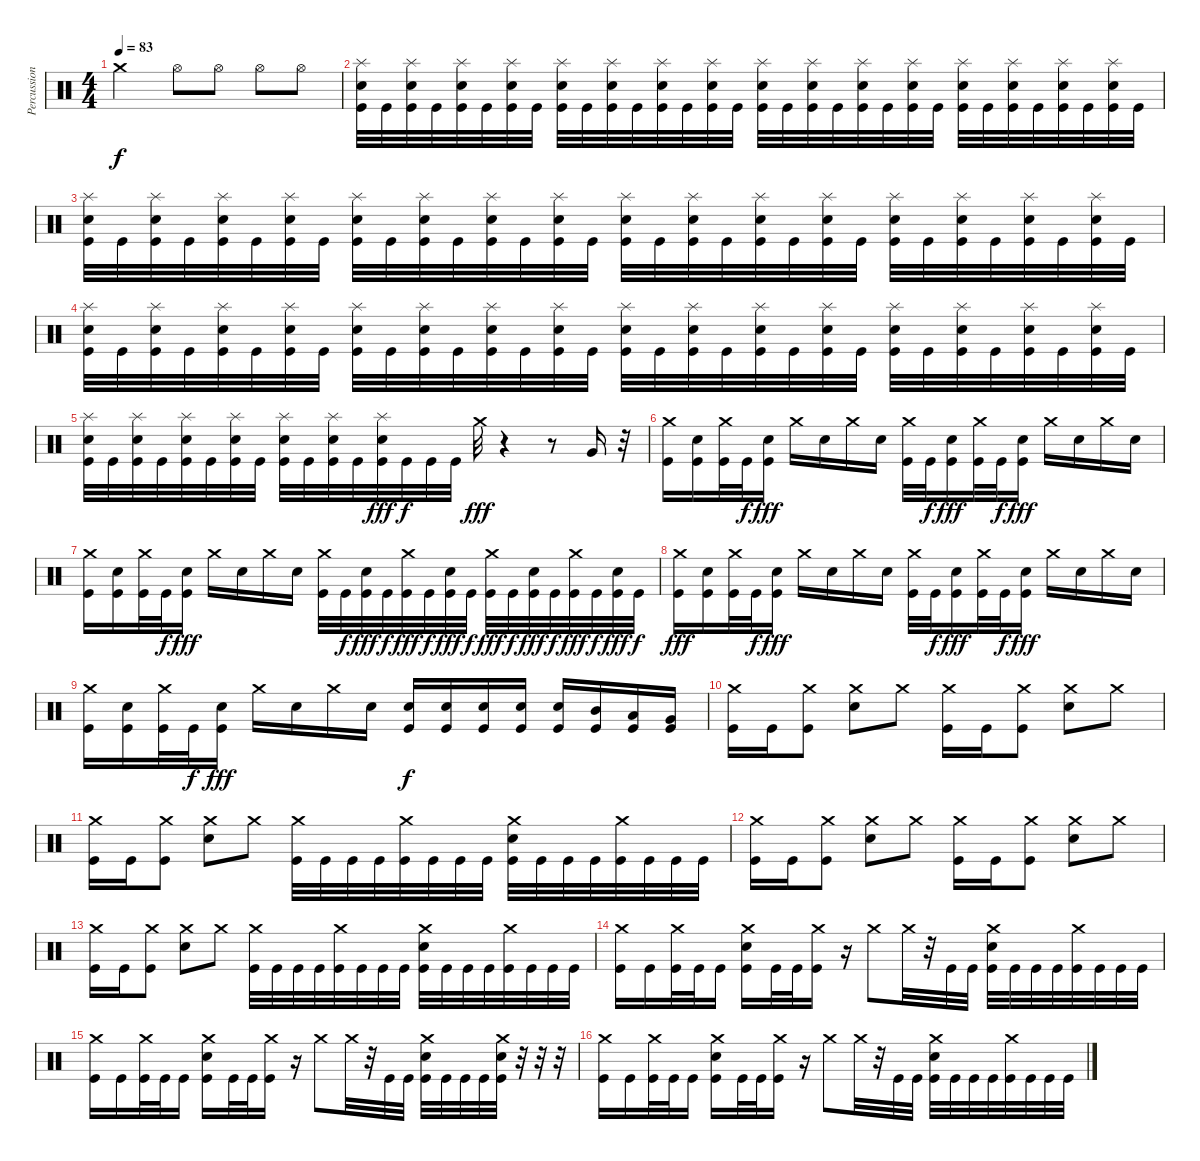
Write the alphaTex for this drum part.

\track ("Percussion" "Percussion") {instrument percussion}
\staff {score}
\articulation defaults
\ts (4 4)
\tempo 83
\clef neutral
\ks c "Crash medium (hit)".2{dy f} "Hi-Hat (open)".8 "Hi-Hat (open)".8 "Hi-Hat (open)".8 "Hi-Hat (open)".8
|
("Splash (hit)" "Snare (hit) 2" "Kick (hit)").32 "Kick (hit)".32 ("Splash (hit)" "Snare (hit) 2" "Kick (hit)").32 "Kick (hit)".32 ("Splash (hit)" "Snare (hit) 2" "Kick (hit)").32 "Kick (hit)".32 ("Splash (hit)" "Snare (hit) 2" "Kick (hit)").32 "Kick (hit)".32 ("Splash (hit)" "Snare (hit) 2" "Kick (hit)").32 "Kick (hit)".32 ("Splash (hit)" "Snare (hit) 2" "Kick (hit)").32 "Kick (hit)".32 ("Splash (hit)" "Snare (hit) 2" "Kick (hit)").32 "Kick (hit)".32 ("Splash (hit)" "Snare (hit) 2" "Kick (hit)").32 "Kick (hit)".32 ("Splash (hit)" "Snare (hit) 2" "Kick (hit)").32 "Kick (hit)".32 ("Splash (hit)" "Snare (hit) 2" "Kick (hit)").32 "Kick (hit)".32 ("Splash (hit)" "Snare (hit) 2" "Kick (hit)").32 "Kick (hit)".32 ("Splash (hit)" "Snare (hit) 2" "Kick (hit)").32 "Kick (hit)".32 ("Splash (hit)" "Snare (hit) 2" "Kick (hit)").32 "Kick (hit)".32 ("Splash (hit)" "Snare (hit) 2" "Kick (hit)").32 "Kick (hit)".32 ("Splash (hit)" "Snare (hit) 2" "Kick (hit)").32 "Kick (hit)".32 ("Splash (hit)" "Snare (hit) 2" "Kick (hit)").32 "Kick (hit)".32 |
("Splash (hit)" "Snare (hit) 2" "Kick (hit)").32 "Kick (hit)".32 ("Splash (hit)" "Snare (hit) 2" "Kick (hit)").32 "Kick (hit)".32 ("Splash (hit)" "Snare (hit) 2" "Kick (hit)").32 "Kick (hit)".32 ("Splash (hit)" "Snare (hit) 2" "Kick (hit)").32 "Kick (hit)".32 ("Splash (hit)" "Snare (hit) 2" "Kick (hit)").32 "Kick (hit)".32 ("Splash (hit)" "Snare (hit) 2" "Kick (hit)").32 "Kick (hit)".32 ("Splash (hit)" "Snare (hit) 2" "Kick (hit)").32 "Kick (hit)".32 ("Splash (hit)" "Snare (hit) 2" "Kick (hit)").32 "Kick (hit)".32 ("Splash (hit)" "Snare (hit) 2" "Kick (hit)").32 "Kick (hit)".32 ("Splash (hit)" "Snare (hit) 2" "Kick (hit)").32 "Kick (hit)".32 ("Splash (hit)" "Snare (hit) 2" "Kick (hit)").32 "Kick (hit)".32 ("Splash (hit)" "Snare (hit) 2" "Kick (hit)").32 "Kick (hit)".32 ("Splash (hit)" "Snare (hit) 2" "Kick (hit)").32 "Kick (hit)".32 ("Splash (hit)" "Snare (hit) 2" "Kick (hit)").32 "Kick (hit)".32 ("Splash (hit)" "Snare (hit) 2" "Kick (hit)").32 "Kick (hit)".32 ("Splash (hit)" "Snare (hit) 2" "Kick (hit)").32 "Kick (hit)".32 |
("Splash (hit)" "Snare (hit) 2" "Kick (hit)").32 "Kick (hit)".32 ("Splash (hit)" "Snare (hit) 2" "Kick (hit)").32 "Kick (hit)".32 ("Splash (hit)" "Snare (hit) 2" "Kick (hit)").32 "Kick (hit)".32 ("Splash (hit)" "Snare (hit) 2" "Kick (hit)").32 "Kick (hit)".32 ("Splash (hit)" "Snare (hit) 2" "Kick (hit)").32 "Kick (hit)".32 ("Splash (hit)" "Snare (hit) 2" "Kick (hit)").32 "Kick (hit)".32 ("Splash (hit)" "Snare (hit) 2" "Kick (hit)").32 "Kick (hit)".32 ("Splash (hit)" "Snare (hit) 2" "Kick (hit)").32 "Kick (hit)".32 ("Splash (hit)" "Snare (hit) 2" "Kick (hit)").32 "Kick (hit)".32 ("Splash (hit)" "Snare (hit) 2" "Kick (hit)").32 "Kick (hit)".32 ("Splash (hit)" "Snare (hit) 2" "Kick (hit)").32 "Kick (hit)".32 ("Splash (hit)" "Snare (hit) 2" "Kick (hit)").32 "Kick (hit)".32 ("Splash (hit)" "Snare (hit) 2" "Kick (hit)").32 "Kick (hit)".32 ("Splash (hit)" "Snare (hit) 2" "Kick (hit)").32 "Kick (hit)".32 ("Splash (hit)" "Snare (hit) 2" "Kick (hit)").32 "Kick (hit)".32 ("Splash (hit)" "Snare (hit) 2" "Kick (hit)").32 "Kick (hit)".32 |
("Splash (hit)" "Snare (hit) 2" "Kick (hit)").32 "Kick (hit)".32 ("Splash (hit)" "Snare (hit) 2" "Kick (hit)").32 "Kick (hit)".32 ("Splash (hit)" "Snare (hit) 2" "Kick (hit)").32 "Kick (hit)".32 ("Splash (hit)" "Snare (hit) 2" "Kick (hit)").32 "Kick (hit)".32 ("Splash (hit)" "Snare (hit) 2" "Kick (hit)").32 "Kick (hit)".32 ("Splash (hit)" "Snare (hit) 2" "Kick (hit)").32 "Kick (hit)".32 ("Splash (hit)" "Snare (hit) 2" "Kick (hit)").32{dy fff} "Kick (hit)".32{dy f} "Kick (hit)".32 "Kick (hit)".32 "Crash medium (hit)".32{dy fff} r.4 r.8 "Very Low Tom (hit)".16 r.32 |
("Crash medium (hit)" "Kick (hit)").16 ("Snare (hit) 2" "Kick (hit)").16 ("Crash medium (hit)" "Kick (hit)").32 "Kick (hit)".32{dy f} ("Snare (hit) 2" "Kick (hit)").16{dy fff} "Crash medium (hit)".16 "Snare (hit) 2".16 "Crash medium (hit)".16 "Snare (hit) 2".16 ("Crash medium (hit)" "Kick (hit)").32 "Kick (hit)".32{dy f} ("Snare (hit) 2" "Kick (hit)").16{dy fff} ("Crash medium (hit)" "Kick (hit)").32 "Kick (hit)".32{dy f} ("Snare (hit) 2" "Kick (hit)").16{dy fff} "Crash medium (hit)".16 "Snare (hit) 2".16 "Crash medium (hit)".16 "Snare (hit) 2".16 |
("Crash medium (hit)" "Kick (hit)").16 ("Snare (hit) 2" "Kick (hit)").16 ("Crash medium (hit)" "Kick (hit)").32 "Kick (hit)".32{dy f} ("Snare (hit) 2" "Kick (hit)").16{dy fff} "Crash medium (hit)".16 "Snare (hit) 2".16 "Crash medium (hit)".16 "Snare (hit) 2".16 ("Crash medium (hit)" "Kick (hit)").32 "Kick (hit)".32{dy f} ("Snare (hit) 2" "Kick (hit)").32{dy fff} "Kick (hit)".32{dy f} ("Crash medium (hit)" "Kick (hit)").32{dy fff} "Kick (hit)".32{dy f} ("Snare (hit) 2" "Kick (hit)").32{dy fff} "Kick (hit)".32{dy f} ("Crash medium (hit)" "Kick (hit)").32{dy fff} "Kick (hit)".32{dy f} ("Snare (hit) 2" "Kick (hit)").32{dy fff} "Kick (hit)".32{dy f} ("Crash medium (hit)" "Kick (hit)").32{dy fff} "Kick (hit)".32{dy f} ("Snare (hit) 2" "Kick (hit)").32{dy fff} "Kick (hit)".32{dy f} |
("Crash medium (hit)" "Kick (hit)").16{dy fff} ("Snare (hit) 2" "Kick (hit)").16 ("Crash medium (hit)" "Kick (hit)").32 "Kick (hit)".32{dy f} ("Snare (hit) 2" "Kick (hit)").16{dy fff} "Crash medium (hit)".16 "Snare (hit) 2".16 "Crash medium (hit)".16 "Snare (hit) 2".16 ("Crash medium (hit)" "Kick (hit)").32 "Kick (hit)".32{dy f} ("Snare (hit) 2" "Kick (hit)").16{dy fff} ("Crash medium (hit)" "Kick (hit)").32 "Kick (hit)".32{dy f} ("Snare (hit) 2" "Kick (hit)").16{dy fff} "Crash medium (hit)".16 "Snare (hit) 2".16 "Crash medium (hit)".16 "Snare (hit) 2".16 |
("Crash medium (hit)" "Kick (hit)").16 ("Snare (hit) 2" "Kick (hit)").16 ("Crash medium (hit)" "Kick (hit)").32 "Kick (hit)".32{dy f} ("Snare (hit) 2" "Kick (hit)").16{dy fff} "Crash medium (hit)".16 "Snare (hit) 2".16 "Crash medium (hit)".16 "Snare (hit) 2".16 ("Snare (hit) 2" "Kick (hit)").16{dy f} ("Snare (hit) 2" "Kick (hit)").16 ("Snare (hit) 2" "Kick (hit)").16 ("Snare (hit) 2" "Kick (hit)").16 ("Snare (hit) 2" "Kick (hit)").16 ("Mid Tom (hit)" "Kick (hit)").16 ("Low Tom (hit)" "Kick (hit)").16 ("Very Low Tom (hit)" "Kick (hit)").16 |
("Crash medium (hit)" "Kick (hit)").16 "Kick (hit)".16 ("Crash medium (hit)" "Kick (hit)").8 ("Crash medium (hit)" "Snare (hit) 2").8 "Crash medium (hit)".8 ("Crash medium (hit)" "Kick (hit)").16 "Kick (hit)".16 ("Crash medium (hit)" "Kick (hit)").8 ("Crash medium (hit)" "Snare (hit) 2").8 "Crash medium (hit)".8 |
("Crash medium (hit)" "Kick (hit)").16 "Kick (hit)".16 ("Crash medium (hit)" "Kick (hit)").8 ("Crash medium (hit)" "Snare (hit) 2").8 "Crash medium (hit)".8 ("Crash medium (hit)" "Kick (hit)").32 "Kick (hit)".32 "Kick (hit)".32 "Kick (hit)".32 ("Crash medium (hit)" "Kick (hit)").32 "Kick (hit)".32 "Kick (hit)".32 "Kick (hit)".32 ("Crash medium (hit)" "Snare (hit) 2" "Kick (hit)").32 "Kick (hit)".32 "Kick (hit)".32 "Kick (hit)".32 ("Crash medium (hit)" "Kick (hit)").32 "Kick (hit)".32 "Kick (hit)".32 "Kick (hit)".32 |
("Crash medium (hit)" "Kick (hit)").16 "Kick (hit)".16 ("Crash medium (hit)" "Kick (hit)").8 ("Crash medium (hit)" "Snare (hit) 2").8 "Crash medium (hit)".8 ("Crash medium (hit)" "Kick (hit)").16 "Kick (hit)".16 ("Crash medium (hit)" "Kick (hit)").8 ("Crash medium (hit)" "Snare (hit) 2").8 "Crash medium (hit)".8 |
("Crash medium (hit)" "Kick (hit)").16 "Kick (hit)".16 ("Crash medium (hit)" "Kick (hit)").8 ("Crash medium (hit)" "Snare (hit) 2").8 "Crash medium (hit)".8 ("Crash medium (hit)" "Kick (hit)").32 "Kick (hit)".32 "Kick (hit)".32 "Kick (hit)".32 ("Crash medium (hit)" "Kick (hit)").32 "Kick (hit)".32 "Kick (hit)".32 "Kick (hit)".32 ("Crash medium (hit)" "Snare (hit) 2" "Kick (hit)").32 "Kick (hit)".32 "Kick (hit)".32 "Kick (hit)".32 ("Crash medium (hit)" "Kick (hit)").32 "Kick (hit)".32 "Kick (hit)".32 "Kick (hit)".32 |
("Crash medium (hit)" "Kick (hit)").16 "Kick (hit)".16 ("Crash medium (hit)" "Kick (hit)").32 "Kick (hit)".32 "Kick (hit)".16 ("Crash medium (hit)" "Snare (hit) 2" "Kick (hit)").16 "Kick (hit)".32 "Kick (hit)".32 ("Crash medium (hit)" "Kick (hit)").16 r.16 "Crash medium (hit)".8 "Crash medium (hit)".32 r.32 "Kick (hit)".32 "Kick (hit)".32 ("Crash medium (hit)" "Snare (hit) 2" "Kick (hit)").32 "Kick (hit)".32 "Kick (hit)".32 "Kick (hit)".32 ("Crash medium (hit)" "Kick (hit)").32 "Kick (hit)".32 "Kick (hit)".32 "Kick (hit)".32 |
("Crash medium (hit)" "Kick (hit)").16 "Kick (hit)".16 ("Crash medium (hit)" "Kick (hit)").32 "Kick (hit)".32 "Kick (hit)".16 ("Crash medium (hit)" "Snare (hit) 2" "Kick (hit)").16 "Kick (hit)".32 "Kick (hit)".32 ("Crash medium (hit)" "Kick (hit)").16 r.16 "Crash medium (hit)".8 "Crash medium (hit)".32 r.32 "Kick (hit)".32 "Kick (hit)".32 ("Crash medium (hit)" "Snare (hit) 2" "Kick (hit)").32 "Kick (hit)".32 "Kick (hit)".32 "Kick (hit)".32 ("Crash medium (hit)" "Snare (hit) 2" "Kick (hit)").32 r.32 r.32 r.32 |
("Crash medium (hit)" "Kick (hit)").16 "Kick (hit)".16 ("Crash medium (hit)" "Kick (hit)").32 "Kick (hit)".32 "Kick (hit)".16 ("Crash medium (hit)" "Snare (hit) 2" "Kick (hit)").16 "Kick (hit)".32 "Kick (hit)".32 ("Crash medium (hit)" "Kick (hit)").16 r.16 "Crash medium (hit)".8 "Crash medium (hit)".32 r.32 "Kick (hit)".32 "Kick (hit)".32 ("Crash medium (hit)" "Snare (hit) 2" "Kick (hit)").32 "Kick (hit)".32 "Kick (hit)".32 "Kick (hit)".32 ("Crash medium (hit)" "Kick (hit)").32 "Kick (hit)".32 "Kick (hit)".32 "Kick (hit)".32
